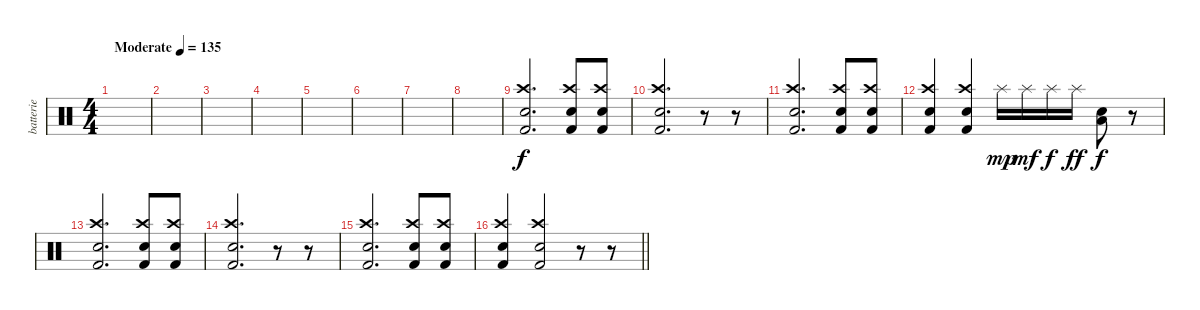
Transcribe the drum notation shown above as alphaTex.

\track ("batterie" "batterie") {instrument percussion}
\staff {score}
\articulation defaults
\ts (4 4)
\tempo (135 "Moderate")
\clef neutral
\ks c
|
|
|
|
|
|
|
|
("Snare (hit) 2" "Crash high (hit)" "Kick (hit) 2").2{d} ("Snare (hit) 2" "Crash high (hit)" "Kick (hit) 2").8 ("Snare (hit) 2" "Crash high (hit)" "Kick (hit) 2").8 |
("Snare (hit) 2" "Crash high (hit)" "Kick (hit) 2").2{d} r.8 r.8 |
("Snare (hit) 2" "Crash high (hit)" "Kick (hit) 2").2{d} ("Snare (hit) 2" "Crash high (hit)" "Kick (hit) 2").8 ("Snare (hit) 2" "Crash high (hit)" "Kick (hit) 2").8 |
("Snare (hit) 2" "Crash high (hit)" "Kick (hit) 2").4 ("Snare (hit) 2" "Crash high (hit)" "Kick (hit) 2").4 "Splash (hit)".16{dy mp} "Splash (hit)".16{dy mf} "Splash (hit)".16{dy f} "Splash (hit)".16{dy ff} ("Electric Snare (hit)" "Low Floor Tom (hit)").8{dy f} r.8 |
("Snare (hit) 2" "Crash high (hit)" "Kick (hit) 2").2{d} ("Snare (hit) 2" "Crash high (hit)" "Kick (hit) 2").8 ("Snare (hit) 2" "Crash high (hit)" "Kick (hit) 2").8 |
("Snare (hit) 2" "Crash high (hit)" "Kick (hit) 2").2{d} r.8 r.8 |
("Snare (hit) 2" "Crash high (hit)" "Kick (hit) 2").2{d} ("Snare (hit) 2" "Crash high (hit)" "Kick (hit) 2").8 ("Snare (hit) 2" "Crash high (hit)" "Kick (hit) 2").8 |
\barLineRight lightlight
("Snare (hit) 2" "Crash high (hit)" "Kick (hit) 2").4 ("Snare (hit) 2" "Crash high (hit)" "Kick (hit) 2").2 r.8 r.8
